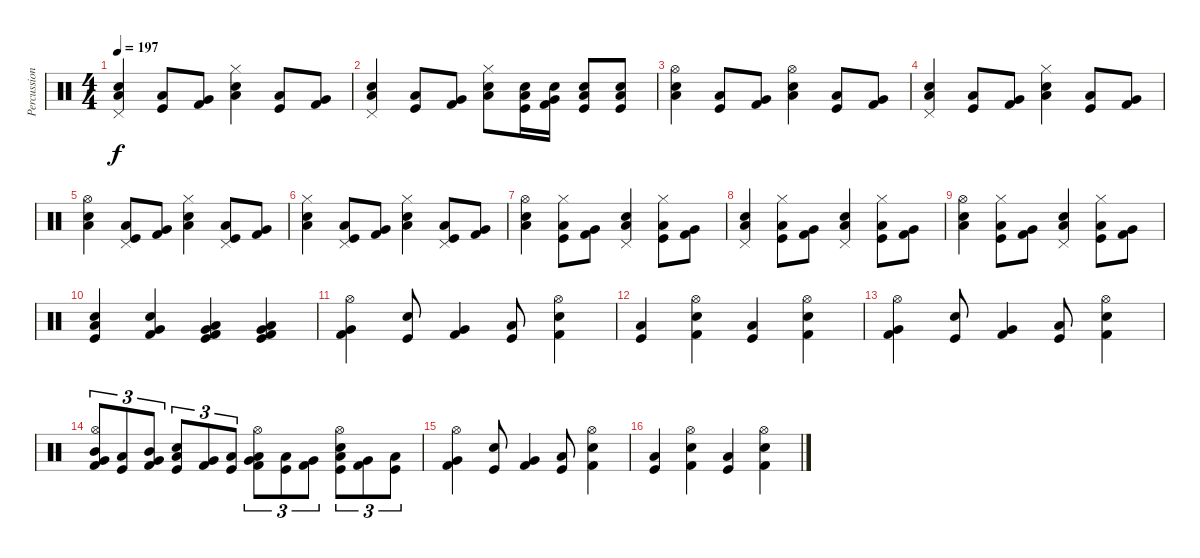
\track ("Percussions" "Percussion") {instrument percussion}
\staff {score}
\articulation defaults
\ts (4 4)
\tempo 197
\clef neutral
\ks c
("Pedal Hi-Hat (hit)" "Electric Snare (hit)" "Low Floor Tom (hit)").4{dy f} ("Low Tom (hit)" "Kick (hit)").8 ("Very Low Tom (hit)" "Kick (hit) 2").8 ("Hi-Hat (closed)" "Electric Snare (hit)" "Low Floor Tom (hit)").4 ("Low Tom (hit)" "Kick (hit)").8 ("Very Low Tom (hit)" "Kick (hit) 2").8 |
("Pedal Hi-Hat (hit)" "Electric Snare (hit)" "Low Floor Tom (hit)").4 ("Low Tom (hit)" "Kick (hit)").8 ("Very Low Tom (hit)" "Kick (hit) 2").8 ("Hi-Hat (closed)" "Electric Snare (hit)" "Low Floor Tom (hit)").8 ("Electric Snare (hit)" "Low Tom (hit)" "Kick (hit)").16 ("Electric Snare (hit)" "Very Low Tom (hit)" "Kick (hit) 2").16 ("Electric Snare (hit)" "Low Tom (hit)" "Kick (hit)").8 ("Electric Snare (hit)" "Low Tom (hit)" "Kick (hit)").8 |
("Hi-Hat (open)" "Electric Snare (hit)" "Low Floor Tom (hit)").4 ("Low Tom (hit)" "Kick (hit)").8 ("Very Low Tom (hit)" "Kick (hit) 2").8 ("Hi-Hat (open)" "Electric Snare (hit)" "Low Floor Tom (hit)").4 ("Low Tom (hit)" "Kick (hit)").8 ("Very Low Tom (hit)" "Kick (hit) 2").8 |
("Pedal Hi-Hat (hit)" "Electric Snare (hit)" "Low Floor Tom (hit)").4 ("Low Tom (hit)" "Kick (hit)").8 ("Very Low Tom (hit)" "Kick (hit) 2").8 ("Hi-Hat (closed)" "Electric Snare (hit)" "Low Floor Tom (hit)").4 ("Low Tom (hit)" "Kick (hit)").8 ("Very Low Tom (hit)" "Kick (hit) 2").8 |
("Hi-Hat (open)" "Electric Snare (hit)" "Low Floor Tom (hit)").4 ("Pedal Hi-Hat (hit)" "Low Tom (hit)" "Kick (hit)").8 ("Very Low Tom (hit)" "Kick (hit) 2").8 ("Hi-Hat (closed)" "Electric Snare (hit)" "Low Floor Tom (hit)").4 ("Pedal Hi-Hat (hit)" "Low Tom (hit)" "Kick (hit)").8 ("Very Low Tom (hit)" "Kick (hit) 2").8 |
("Hi-Hat (closed)" "Electric Snare (hit)" "Low Floor Tom (hit)").4 ("Pedal Hi-Hat (hit)" "Low Tom (hit)" "Kick (hit)").8 ("Very Low Tom (hit)" "Kick (hit) 2").8 ("Hi-Hat (closed)" "Electric Snare (hit)" "Low Floor Tom (hit)").4 ("Pedal Hi-Hat (hit)" "Low Tom (hit)" "Kick (hit)").8 ("Very Low Tom (hit)" "Kick (hit) 2").8 |
("Hi-Hat (open)" "Electric Snare (hit)" "Low Floor Tom (hit)").4 ("Hi-Hat (closed)" "Low Tom (hit)" "Kick (hit)").8 ("Very Low Tom (hit)" "Kick (hit) 2").8 ("Pedal Hi-Hat (hit)" "Electric Snare (hit)" "Low Floor Tom (hit)").4 ("Hi-Hat (closed)" "Low Tom (hit)" "Kick (hit)").8 ("Very Low Tom (hit)" "Kick (hit) 2").8 |
("Pedal Hi-Hat (hit)" "Electric Snare (hit)" "Low Floor Tom (hit)").4 ("Hi-Hat (closed)" "Low Tom (hit)" "Kick (hit)").8 ("Very Low Tom (hit)" "Kick (hit) 2").8 ("Pedal Hi-Hat (hit)" "Electric Snare (hit)" "Low Floor Tom (hit)").4 ("Hi-Hat (closed)" "Low Tom (hit)" "Kick (hit)").8 ("Very Low Tom (hit)" "Kick (hit) 2").8 |
("Hi-Hat (open)" "Electric Snare (hit)" "Low Floor Tom (hit)").4 ("Hi-Hat (closed)" "Low Tom (hit)" "Kick (hit)").8 ("Very Low Tom (hit)" "Kick (hit) 2").8 ("Pedal Hi-Hat (hit)" "Electric Snare (hit)" "Low Floor Tom (hit)").4 ("Hi-Hat (closed)" "Low Tom (hit)" "Kick (hit)").8 ("Very Low Tom (hit)" "Kick (hit) 2").8 |
("Electric Snare (hit)" "Kick (hit)" "Low Tom (hit)").4 ("Electric Snare (hit)" "Kick (hit) 2" "Very Low Tom (hit)").4 ("Kick (hit) 2" "Very Low Tom (hit)" "Kick (hit)" "Low Tom (hit)").4 ("Kick (hit)" "Low Tom (hit)" "Kick (hit) 2" "Very Low Tom (hit)").4 |
("Hi-Hat (open)" "Very Low Tom (hit)" "Kick (hit) 2").4 ("Kick (hit)" "Electric Snare (hit)").8 ("Very Low Tom (hit)" "Kick (hit) 2").4 ("Low Tom (hit)" "Kick (hit)").8 ("Hi-Hat (open)" "Kick (hit) 2" "Electric Snare (hit)").4 |
("Low Tom (hit)" "Kick (hit)").4 ("Hi-Hat (open)" "Kick (hit) 2" "Electric Snare (hit)").4 ("Low Tom (hit)" "Kick (hit)").4 ("Hi-Hat (open)" "Kick (hit) 2" "Electric Snare (hit)").4 |
("Hi-Hat (open)" "Very Low Tom (hit)" "Kick (hit) 2").4 ("Kick (hit)" "Electric Snare (hit)").8 ("Very Low Tom (hit)" "Kick (hit) 2").4 ("Low Tom (hit)" "Kick (hit)").8 ("Hi-Hat (open)" "Kick (hit) 2" "Electric Snare (hit)").4 |
("Hi-Hat (open)" "Mid Tom (hit)" "Very Low Tom (hit)" "Kick (hit) 2").8{tu (3 2)} ("Low Tom (hit)" "Kick (hit)").8{tu (3 2)} ("Mid Tom (hit)" "Very Low Tom (hit)" "Kick (hit) 2").8{tu (3 2)} ("Electric Snare (hit)" "Low Tom (hit)" "Kick (hit)").8{tu (3 2)} ("Very Low Tom (hit)" "Kick (hit) 2").8{tu (3 2)} ("Low Tom (hit)" "Kick (hit)").8{tu (3 2)} ("Hi-Hat (open)" "Low Tom (hit)" "Very Low Tom (hit)" "Kick (hit) 2").8{tu (3 2)} ("Low Tom (hit)" "Kick (hit)").8{tu (3 2)} ("Very Low Tom (hit)" "Kick (hit) 2").8{tu (3 2)} ("Hi-Hat (open)" "Electric Snare (hit)" "Low Tom (hit)" "Kick (hit)").8{tu (3 2)} ("Very Low Tom (hit)" "Kick (hit) 2").8{tu (3 2)} ("Low Tom (hit)" "Kick (hit)").8{tu (3 2)} |
("Hi-Hat (open)" "Very Low Tom (hit)" "Kick (hit) 2").4 ("Kick (hit)" "Electric Snare (hit)").8 ("Very Low Tom (hit)" "Kick (hit) 2").4 ("Low Tom (hit)" "Kick (hit)").8 ("Hi-Hat (open)" "Kick (hit) 2" "Electric Snare (hit)").4 |
("Low Tom (hit)" "Kick (hit)").4 ("Hi-Hat (open)" "Kick (hit) 2" "Electric Snare (hit)").4 ("Low Tom (hit)" "Kick (hit)").4 ("Hi-Hat (open)" "Kick (hit) 2" "Electric Snare (hit)").4
